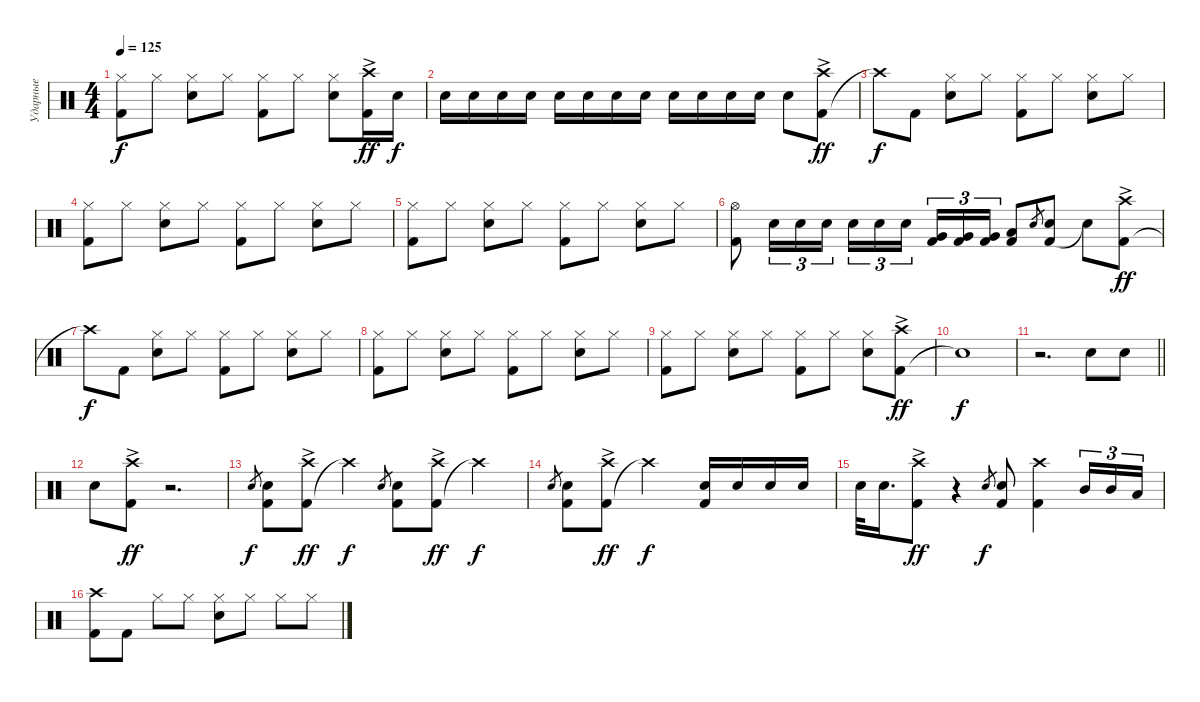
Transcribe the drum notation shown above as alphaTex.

\track ("Ударные" "Ударные") {instrument percussion}
\staff
\articulation defaults
\ts (4 4)
\tempo 125
\clef neutral
\ks c
("Kick (hit) 2" "Hi-Hat (closed)").8{dy f} "Hi-Hat (closed)".8 ("Snare (hit) 2" "Hi-Hat (closed)").8 "Hi-Hat (closed)".8 ("Kick (hit) 2" "Hi-Hat (closed)").8 "Hi-Hat (closed)".8 ("Snare (hit) 2" "Hi-Hat (closed)").8 ("Kick (hit) 2" "Crash high (hit)"{ac}).16{dy ff} "Electric Snare (hit)".16{dy f} |
"Electric Snare (hit)".16 "Electric Snare (hit)".16 "Snare (hit) 2".16 "Electric Snare (hit)".16 "Electric Snare (hit)".16 "Electric Snare (hit)".16 "Snare (hit) 2".16 "Snare (hit) 2".16 "Snare (hit) 2".16 "Snare (hit) 2".16 "Snare (hit) 2".16 "Snare (hit) 2".16 "Snare (hit) 2".8 ("Kick (hit) 2" "Crash high (hit)"{ac}).8{dy ff} |
"Crash high (hit)"{t}.8{dy f} "Kick (hit) 2".8 ("Snare (hit) 2" "Hi-Hat (closed)").8 "Hi-Hat (closed)".8 ("Kick (hit) 2" "Hi-Hat (closed)").8 "Hi-Hat (closed)".8 ("Snare (hit) 2" "Hi-Hat (closed)").8 "Hi-Hat (closed)".8 |
("Kick (hit) 2" "Hi-Hat (closed)").8 "Hi-Hat (closed)".8 ("Snare (hit) 2" "Hi-Hat (closed)").8 "Hi-Hat (closed)".8 ("Kick (hit) 2" "Hi-Hat (closed)").8 "Hi-Hat (closed)".8 ("Snare (hit) 2" "Hi-Hat (closed)").8 "Hi-Hat (closed)".8 |
("Kick (hit) 2" "Hi-Hat (closed)").8 "Hi-Hat (closed)".8 ("Snare (hit) 2" "Hi-Hat (closed)").8 "Hi-Hat (closed)".8 ("Kick (hit) 2" "Hi-Hat (closed)").8 "Hi-Hat (closed)".8 ("Snare (hit) 2" "Hi-Hat (closed)").8 "Hi-Hat (closed)".8 |
("Kick (hit) 2" "Hi-Hat (open)").8 "Snare (hit) 2".16{tu (3 2)} "Snare (hit) 2".16{tu (3 2)} "Snare (hit) 2".16{tu (3 2)} "Snare (hit) 2".16{tu (3 2)} "Snare (hit) 2".16{tu (3 2)} "Snare (hit) 2".16{tu (3 2) beam splitsecondary} ("Kick (hit) 2" "Very Low Tom (hit)").16{tu (3 2)} ("Kick (hit) 2" "Very Low Tom (hit)").16{tu (3 2)} ("Kick (hit) 2" "Very Low Tom (hit)").16{tu (3 2)} ("Kick (hit) 2" "Low Tom (hit)").8 "Electric Snare (hit)".8{gr} ("Kick (hit) 2" "Electric Snare (hit)").8 "Snare (hit)"{t}.8 ("Kick (hit) 2" "Crash high (hit)"{ac}).8{dy ff} |
"Crash high (hit)"{t}.8{dy f} "Kick (hit) 2".8 ("Snare (hit) 2" "Hi-Hat (closed)").8 "Hi-Hat (closed)".8 ("Kick (hit) 2" "Hi-Hat (closed)").8 "Hi-Hat (closed)".8 ("Snare (hit) 2" "Hi-Hat (closed)").8 "Hi-Hat (closed)".8 |
("Kick (hit) 2" "Hi-Hat (closed)").8 "Hi-Hat (closed)".8 ("Snare (hit) 2" "Hi-Hat (closed)").8 "Hi-Hat (closed)".8 ("Kick (hit) 2" "Hi-Hat (closed)").8 "Hi-Hat (closed)".8 ("Snare (hit) 2" "Hi-Hat (closed)").8 "Hi-Hat (closed)".8 |
("Kick (hit) 2" "Hi-Hat (closed)").8 "Hi-Hat (closed)".8 ("Snare (hit) 2" "Hi-Hat (closed)").8 "Hi-Hat (closed)".8 ("Kick (hit) 2" "Hi-Hat (closed)").8 "Hi-Hat (closed)".8 ("Snare (hit) 2" "Hi-Hat (closed)").8 ("Kick (hit) 2" "Crash high (hit)"{ac}).8{dy ff} |
"Snare (hit)"{t}.1{dy f} |
\barLineRight lightlight
r.2{d} "Snare (hit) 2".8 "Snare (hit) 2".8 |
"Snare (hit) 2".8 ("Kick (hit) 2" "Crash high (hit)"{ac}).8{dy ff} r.2{d} |
"Electric Snare (hit)".8{gr dy f} ("Kick (hit) 2" "Electric Snare (hit)").8 ("Kick (hit) 2" "Crash high (hit)"{ac}).8{dy ff} "Crash high (hit)"{t}.4{dy f} "Electric Snare (hit)".8{gr} ("Kick (hit) 2" "Electric Snare (hit)").8 ("Kick (hit) 2" "Crash high (hit)"{ac}).8{dy ff} "Crash high (hit)"{t}.4{dy f} |
"Electric Snare (hit)".8{gr} ("Kick (hit) 2" "Electric Snare (hit)").8 ("Kick (hit) 2" "Crash high (hit)"{ac}).8{dy ff} "Crash high (hit)"{t}.2{dy f} ("Kick (hit) 2" "Electric Snare (hit)").16 "Electric Snare (hit)".16 "Electric Snare (hit)".16 "Electric Snare (hit)".16 |
"Electric Snare (hit)".32 "Electric Snare (hit)".16{d} ("Kick (hit) 2" "Crash high (hit)"{ac}).8{dy ff} r.4 "Electric Snare (hit)".8{gr dy f} ("Kick (hit) 2" "Electric Snare (hit)").8 ("Kick (hit) 2" "Crash high (hit)").4 "Mid Tom (hit)".16{tu (3 2)} "Mid Tom (hit)".16{tu (3 2)} "Low Tom (hit)".16{tu (3 2)} |
("Kick (hit) 2" "Crash high (hit)").8 "Kick (hit) 2".8 "Hi-Hat (closed)".8 "Hi-Hat (closed)".8 ("Snare (hit) 2" "Hi-Hat (closed)").8 "Hi-Hat (closed)".8 "Hi-Hat (closed)".8 "Hi-Hat (closed)".8
